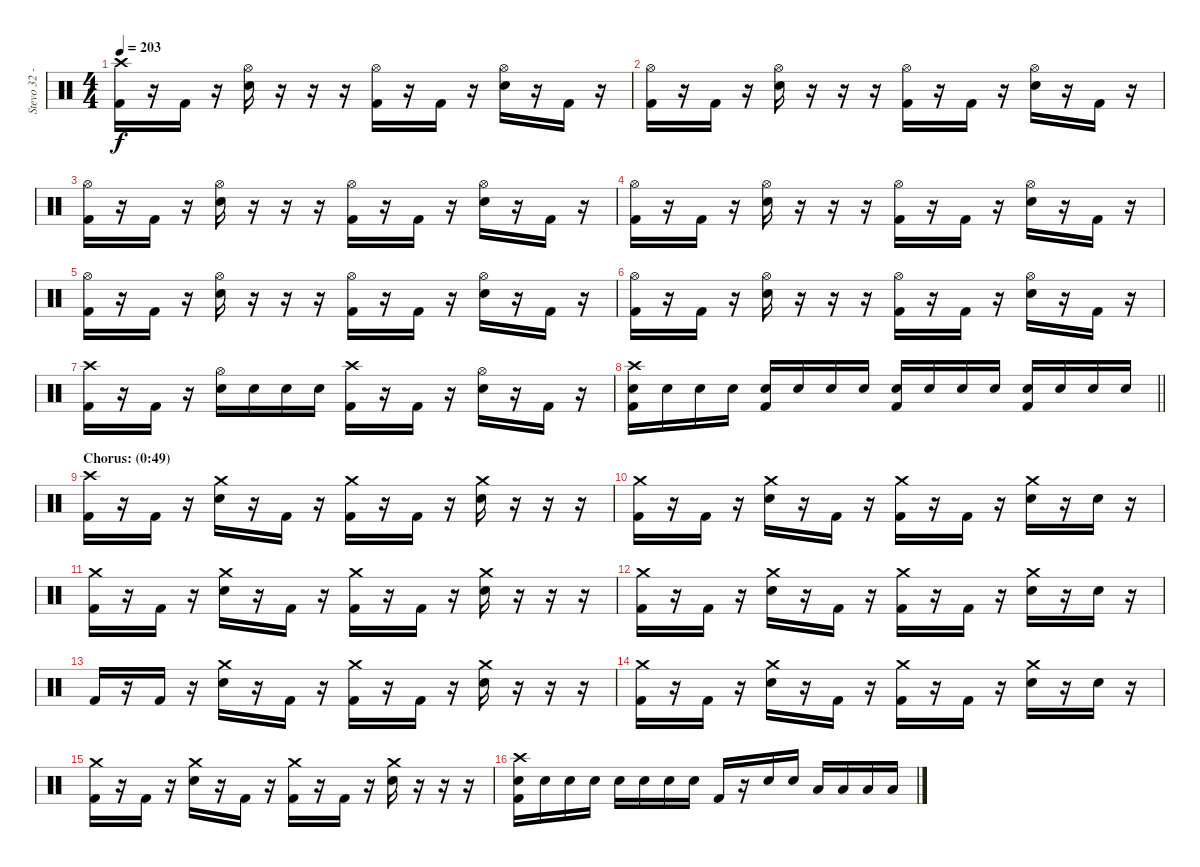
\track ("Stevo 32 - Drums" "Stevo 32 -") {instrument percussion}
\staff {score}
\articulation defaults
\ts (4 4)
\tempo 203
\clef neutral
\ks c
("Crash high (hit)" "Kick (hit) 2").16{dy f} r.16 "Kick (hit) 2".16 r.16 ("Hi-Hat (open)" "Snare (hit) 2").16 r.16 r.16 r.16 ("Hi-Hat (open)" "Kick (hit) 2").16 r.16 "Kick (hit) 2".16 r.16 ("Hi-Hat (open)" "Snare (hit) 2").16 r.16 "Kick (hit) 2".16 r.16 |
("Hi-Hat (open)" "Kick (hit) 2").16 r.16 "Kick (hit) 2".16 r.16 ("Hi-Hat (open)" "Snare (hit) 2").16 r.16 r.16 r.16 ("Hi-Hat (open)" "Kick (hit) 2").16 r.16 "Kick (hit) 2".16 r.16 ("Hi-Hat (open)" "Snare (hit) 2").16 r.16 "Kick (hit) 2".16 r.16 |
("Hi-Hat (open)" "Kick (hit) 2").16 r.16 "Kick (hit) 2".16 r.16 ("Hi-Hat (open)" "Snare (hit) 2").16 r.16 r.16 r.16 ("Hi-Hat (open)" "Kick (hit) 2").16 r.16 "Kick (hit) 2".16 r.16 ("Hi-Hat (open)" "Snare (hit) 2").16 r.16 "Kick (hit) 2".16 r.16 |
("Hi-Hat (open)" "Kick (hit) 2").16 r.16 "Kick (hit) 2".16 r.16 ("Hi-Hat (open)" "Snare (hit) 2").16 r.16 r.16 r.16 ("Hi-Hat (open)" "Kick (hit) 2").16 r.16 "Kick (hit) 2".16 r.16 ("Hi-Hat (open)" "Snare (hit) 2").16 r.16 "Kick (hit) 2".16 r.16 |
("Hi-Hat (open)" "Kick (hit) 2").16 r.16 "Kick (hit) 2".16 r.16 ("Hi-Hat (open)" "Snare (hit) 2").16 r.16 r.16 r.16 ("Hi-Hat (open)" "Kick (hit) 2").16 r.16 "Kick (hit) 2".16 r.16 ("Hi-Hat (open)" "Snare (hit) 2").16 r.16 "Kick (hit) 2".16 r.16 |
("Hi-Hat (open)" "Kick (hit) 2").16 r.16 "Kick (hit) 2".16 r.16 ("Hi-Hat (open)" "Snare (hit) 2").16 r.16 r.16 r.16 ("Hi-Hat (open)" "Kick (hit) 2").16 r.16 "Kick (hit) 2".16 r.16 ("Hi-Hat (open)" "Snare (hit) 2").16 r.16 "Kick (hit) 2".16 r.16 |
("Crash high (hit)" "Kick (hit) 2").16 r.16 "Kick (hit) 2".16 r.16 ("Hi-Hat (open)" "Snare (hit) 2").16 "Snare (hit) 2".16 "Snare (hit) 2".16 "Snare (hit) 2".16 ("Crash high (hit)" "Kick (hit) 2").16 r.16 "Kick (hit) 2".16 r.16 ("Hi-Hat (open)" "Snare (hit) 2").16 r.16 "Kick (hit) 2".16 r.16 |
\barLineRight lightlight
("Crash high (hit)" "Snare (hit) 2" "Kick (hit) 2").16 "Snare (hit) 2".16 "Snare (hit) 2".16 "Snare (hit) 2".16 ("Snare (hit) 2" "Kick (hit) 2").16 "Snare (hit) 2".16 "Snare (hit) 2".16 "Snare (hit) 2".16 ("Snare (hit) 2" "Kick (hit) 2").16 "Snare (hit) 2".16 "Snare (hit) 2".16 "Snare (hit) 2".16 ("Snare (hit) 2" "Kick (hit) 2").16 "Snare (hit) 2".16 "Snare (hit) 2".16 "Snare (hit) 2".16 |
\section ("" "Chorus: (0:49)")
("Crash high (hit)" "Kick (hit) 2").16 r.16 "Kick (hit) 2".16 r.16 ("Crash medium (hit)" "Snare (hit) 2").16 r.16 "Kick (hit) 2".16 r.16 ("Crash medium (hit)" "Kick (hit) 2").16 r.16 "Kick (hit) 2".16 r.16 ("Crash medium (hit)" "Snare (hit) 2").16 r.16 r.16 r.16 |
("Crash medium (hit)" "Kick (hit) 2").16 r.16 "Kick (hit) 2".16 r.16 ("Crash medium (hit)" "Snare (hit) 2").16 r.16 "Kick (hit) 2".16 r.16 ("Crash medium (hit)" "Kick (hit) 2").16 r.16 "Kick (hit) 2".16 r.16 ("Crash medium (hit)" "Snare (hit) 2").16 r.16 "Snare (hit) 2".16 r.16 |
("Crash medium (hit)" "Kick (hit) 2").16 r.16 "Kick (hit) 2".16 r.16 ("Crash medium (hit)" "Snare (hit) 2").16 r.16 "Kick (hit) 2".16 r.16 ("Crash medium (hit)" "Kick (hit) 2").16 r.16 "Kick (hit) 2".16 r.16 ("Crash medium (hit)" "Snare (hit) 2").16 r.16 r.16 r.16 |
("Crash medium (hit)" "Kick (hit) 2").16 r.16 "Kick (hit) 2".16 r.16 ("Crash medium (hit)" "Snare (hit) 2").16 r.16 "Kick (hit) 2".16 r.16 ("Crash medium (hit)" "Kick (hit) 2").16 r.16 "Kick (hit) 2".16 r.16 ("Crash medium (hit)" "Snare (hit) 2").16 r.16 "Snare (hit) 2".16 r.16 |
"Kick (hit) 2".16 r.16 "Kick (hit) 2".16 r.16 ("Crash medium (hit)" "Snare (hit) 2").16 r.16 "Kick (hit) 2".16 r.16 ("Crash medium (hit)" "Kick (hit) 2").16 r.16 "Kick (hit) 2".16 r.16 ("Crash medium (hit)" "Snare (hit) 2").16 r.16 r.16 r.16 |
("Crash medium (hit)" "Kick (hit) 2").16 r.16 "Kick (hit) 2".16 r.16 ("Crash medium (hit)" "Snare (hit) 2").16 r.16 "Kick (hit) 2".16 r.16 ("Crash medium (hit)" "Kick (hit) 2").16 r.16 "Kick (hit) 2".16 r.16 ("Crash medium (hit)" "Snare (hit) 2").16 r.16 "Snare (hit) 2".16 r.16 |
("Crash medium (hit)" "Kick (hit) 2").16 r.16 "Kick (hit) 2".16 r.16 ("Crash medium (hit)" "Snare (hit) 2").16 r.16 "Kick (hit) 2".16 r.16 ("Crash medium (hit)" "Kick (hit) 2").16 r.16 "Kick (hit) 2".16 r.16 ("Crash medium (hit)" "Snare (hit) 2").16 r.16 r.16 r.16 |
("Crash high (hit)" "Snare (hit) 2" "Kick (hit) 2").16 "Snare (hit) 2".16 "Snare (hit) 2".16 "Snare (hit) 2".16 "Snare (hit) 2".16 "Snare (hit) 2".16 "Snare (hit) 2".16 "Snare (hit) 2".16 "Kick (hit) 2".16 r.16 "Snare (hit) 2".16 "Snare (hit) 2".16 "Low Floor Tom (hit)".16 "Low Floor Tom (hit)".16 "Low Tom (hit)".16 "Low Tom (hit)".16
